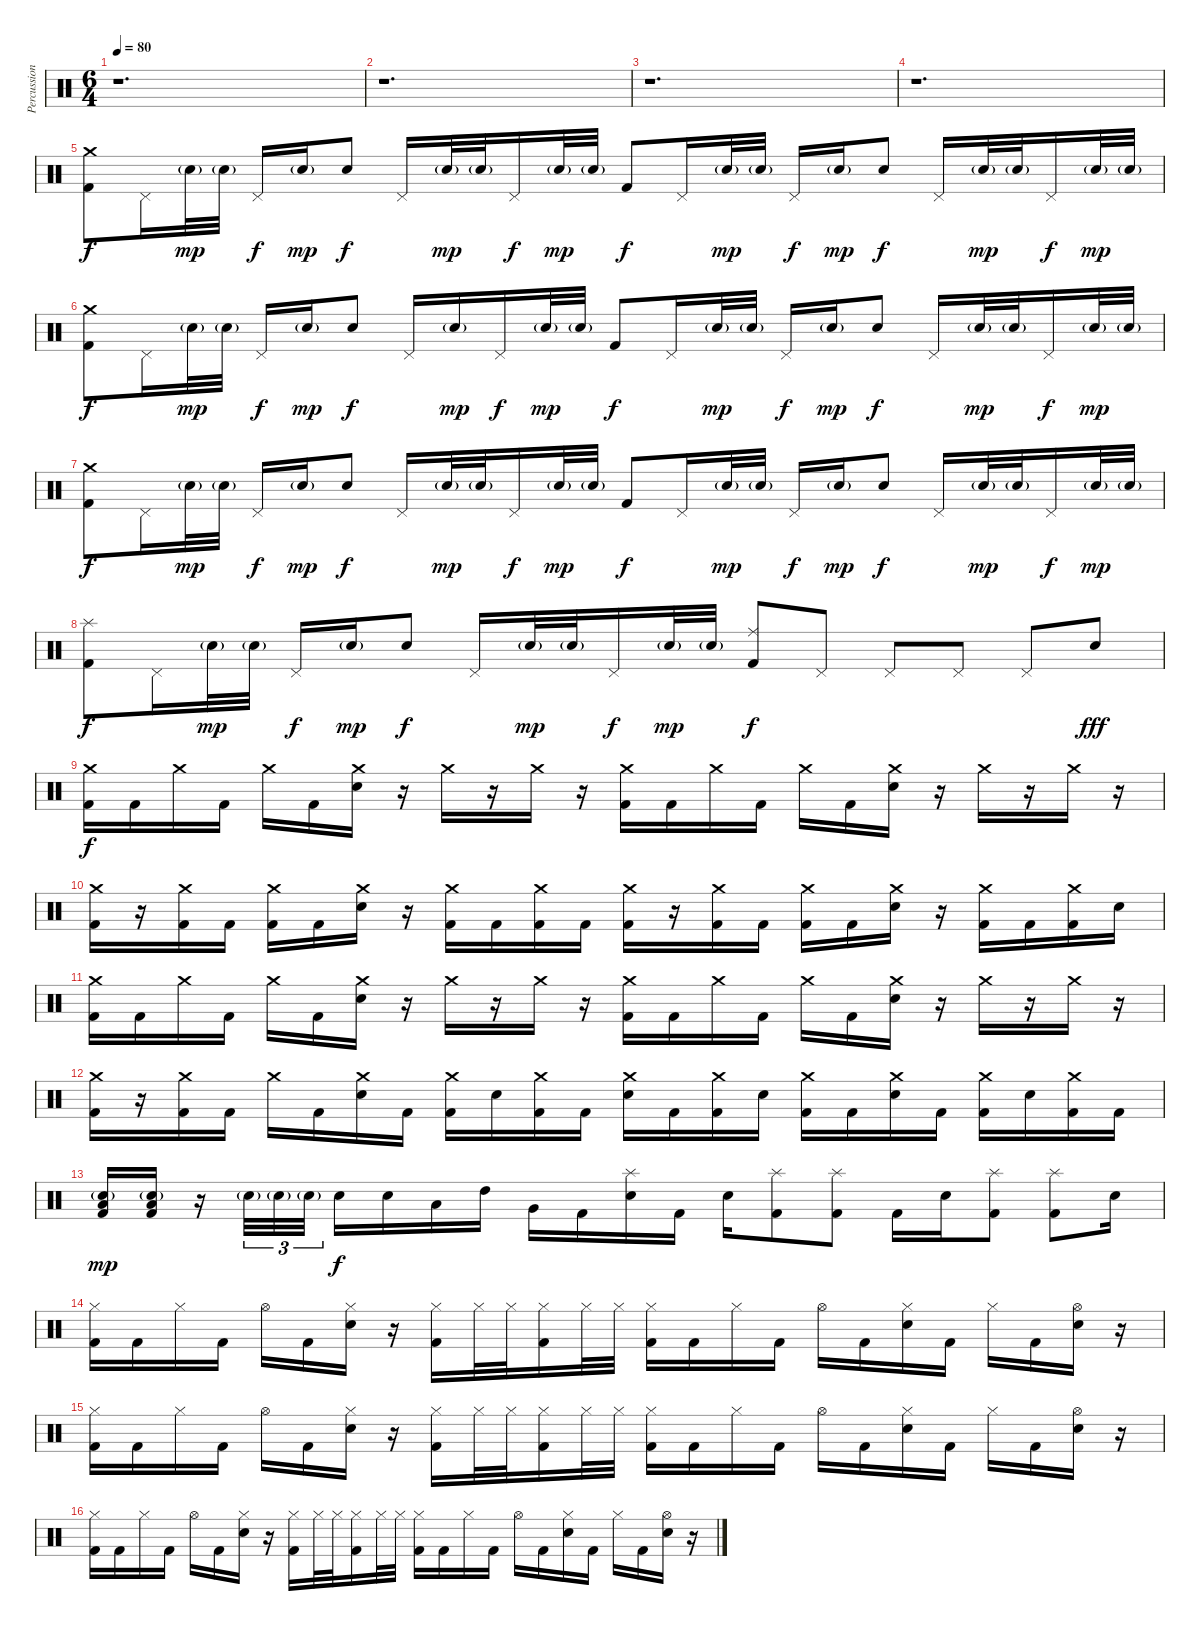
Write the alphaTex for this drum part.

\track ("Percussion" "Percussion") {instrument percussion}
\staff {score}
\articulation defaults
\ts (6 4)
\tempo 80
\clef neutral
\ks c
r.1{d dy f} |
r.1{d} |
r.1{d} |
r.1{d} |
("Crash medium (hit)" "Kick (hit) 2").8 "Pedal Hi-Hat (hit)".16 "Electric Snare (hit)"{g}.32{dy mp} "Electric Snare (hit)"{g}.32 "Pedal Hi-Hat (hit)".16{dy f} "Electric Snare (hit)"{g}.16{dy mp} "Electric Snare (hit)".8{dy f} "Pedal Hi-Hat (hit)".16 "Electric Snare (hit)"{g}.32{dy mp} "Electric Snare (hit)"{g}.32 "Pedal Hi-Hat (hit)".16{dy f} "Electric Snare (hit)"{g}.32{dy mp} "Electric Snare (hit)"{g}.32 "Kick (hit) 2".8{dy f} "Pedal Hi-Hat (hit)".16 "Electric Snare (hit)"{g}.32{dy mp} "Electric Snare (hit)"{g}.32 "Pedal Hi-Hat (hit)".16{dy f} "Electric Snare (hit)"{g}.16{dy mp} "Electric Snare (hit)".8{dy f} "Pedal Hi-Hat (hit)".16 "Electric Snare (hit)"{g}.32{dy mp} "Electric Snare (hit)"{g}.32 "Pedal Hi-Hat (hit)".16{dy f} "Electric Snare (hit)"{g}.32{dy mp} "Electric Snare (hit)"{g}.32 |
("Crash medium (hit)" "Kick (hit) 2").8{dy f} "Pedal Hi-Hat (hit)".16 "Electric Snare (hit)"{g}.32{dy mp} "Electric Snare (hit)"{g}.32 "Pedal Hi-Hat (hit)".16{dy f} "Electric Snare (hit)"{g}.16{dy mp} "Electric Snare (hit)".8{dy f} "Pedal Hi-Hat (hit)".16 "Electric Snare (hit)"{g}.16{dy mp} "Pedal Hi-Hat (hit)".16{dy f} "Electric Snare (hit)"{g}.32{dy mp} "Electric Snare (hit)"{g}.32 "Kick (hit) 2".8{dy f} "Pedal Hi-Hat (hit)".16 "Electric Snare (hit)"{g}.32{dy mp} "Electric Snare (hit)"{g}.32 "Pedal Hi-Hat (hit)".16{dy f} "Electric Snare (hit)"{g}.16{dy mp} "Electric Snare (hit)".8{dy f} "Pedal Hi-Hat (hit)".16 "Electric Snare (hit)"{g}.32{dy mp} "Electric Snare (hit)"{g}.32 "Pedal Hi-Hat (hit)".16{dy f} "Electric Snare (hit)"{g}.32{dy mp} "Electric Snare (hit)"{g}.32 |
("Crash medium (hit)" "Kick (hit) 2").8{dy f} "Pedal Hi-Hat (hit)".16 "Electric Snare (hit)"{g}.32{dy mp} "Electric Snare (hit)"{g}.32 "Pedal Hi-Hat (hit)".16{dy f} "Electric Snare (hit)"{g}.16{dy mp} "Electric Snare (hit)".8{dy f} "Pedal Hi-Hat (hit)".16 "Electric Snare (hit)"{g}.32{dy mp} "Electric Snare (hit)"{g}.32 "Pedal Hi-Hat (hit)".16{dy f} "Electric Snare (hit)"{g}.32{dy mp} "Electric Snare (hit)"{g}.32 "Kick (hit) 2".8{dy f} "Pedal Hi-Hat (hit)".16 "Electric Snare (hit)"{g}.32{dy mp} "Electric Snare (hit)"{g}.32 "Pedal Hi-Hat (hit)".16{dy f} "Electric Snare (hit)"{g}.16{dy mp} "Electric Snare (hit)".8{dy f} "Pedal Hi-Hat (hit)".16 "Electric Snare (hit)"{g}.32{dy mp} "Electric Snare (hit)"{g}.32 "Pedal Hi-Hat (hit)".16{dy f} "Electric Snare (hit)"{g}.32{dy mp} "Electric Snare (hit)"{g}.32 |
("Splash (hit)" "Kick (hit) 2").8{dy f} "Pedal Hi-Hat (hit)".16 "Electric Snare (hit)"{g}.32{dy mp} "Electric Snare (hit)"{g}.32 "Pedal Hi-Hat (hit)".16{dy f} "Electric Snare (hit)"{g}.16{dy mp} "Electric Snare (hit)".8{dy f} "Pedal Hi-Hat (hit)".16 "Electric Snare (hit)"{g}.32{dy mp} "Electric Snare (hit)"{g}.32 "Pedal Hi-Hat (hit)".16{dy f} "Electric Snare (hit)"{g}.32{dy mp} "Electric Snare (hit)"{g}.32 ("Ride (middle)" "Kick (hit) 2").8{dy f} "Pedal Hi-Hat (hit)".8 "Pedal Hi-Hat (hit)".8 "Pedal Hi-Hat (hit)".8 "Pedal Hi-Hat (hit)".8 "Electric Snare (hit)".8{dy fff} |
("Crash medium (hit)" "Kick (hit) 2").16{dy f} "Kick (hit) 2".16 "Crash medium (hit)".16 "Kick (hit) 2".16 "Crash medium (hit)".16 "Kick (hit) 2".16 ("Crash medium (hit)" "Electric Snare (hit)").16 r.16 "Crash medium (hit)".16 r.16 "Crash medium (hit)".16 r.16 ("Crash medium (hit)" "Kick (hit) 2").16 "Kick (hit) 2".16 "Crash medium (hit)".16 "Kick (hit) 2".16 "Crash medium (hit)".16 "Kick (hit) 2".16 ("Crash medium (hit)" "Electric Snare (hit)").16 r.16 "Crash medium (hit)".16 r.16 "Crash medium (hit)".16 r.16 |
("Crash medium (hit)" "Kick (hit) 2").16 r.16 ("Crash medium (hit)" "Kick (hit) 2").16 "Kick (hit) 2".16 ("Crash medium (hit)" "Kick (hit) 2").16 "Kick (hit) 2".16 ("Crash medium (hit)" "Electric Snare (hit)").16 r.16 ("Crash medium (hit)" "Kick (hit) 2").16 "Kick (hit) 2".16 ("Crash medium (hit)" "Kick (hit) 2").16 "Kick (hit) 2".16 ("Crash medium (hit)" "Kick (hit) 2").16 r.16 ("Crash medium (hit)" "Kick (hit) 2").16 "Kick (hit) 2".16 ("Crash medium (hit)" "Kick (hit) 2").16 "Kick (hit) 2".16 ("Crash medium (hit)" "Electric Snare (hit)").16 r.16 ("Crash medium (hit)" "Kick (hit) 2").16 "Kick (hit) 2".16 ("Crash medium (hit)" "Kick (hit) 2").16 "Electric Snare (hit)".16 |
("Crash medium (hit)" "Kick (hit) 2").16 "Kick (hit) 2".16 "Crash medium (hit)".16 "Kick (hit) 2".16 "Crash medium (hit)".16 "Kick (hit) 2".16 ("Crash medium (hit)" "Electric Snare (hit)").16 r.16 "Crash medium (hit)".16 r.16 "Crash medium (hit)".16 r.16 ("Crash medium (hit)" "Kick (hit) 2").16 "Kick (hit) 2".16 "Crash medium (hit)".16 "Kick (hit) 2".16 "Crash medium (hit)".16 "Kick (hit) 2".16 ("Crash medium (hit)" "Electric Snare (hit)").16 r.16 "Crash medium (hit)".16 r.16 "Crash medium (hit)".16 r.16 |
("Crash medium (hit)" "Kick (hit) 2").16 r.16 ("Crash medium (hit)" "Kick (hit) 2").16 "Kick (hit) 2".16 "Crash medium (hit)".16 "Kick (hit) 2".16 ("Crash medium (hit)" "Electric Snare (hit)").16 "Kick (hit) 2".16 ("Crash medium (hit)" "Kick (hit) 2").16 "Electric Snare (hit)".16 ("Crash medium (hit)" "Kick (hit) 2").16 "Kick (hit) 2".16 ("Crash medium (hit)" "Electric Snare (hit)").16 "Kick (hit) 2".16 ("Crash medium (hit)" "Kick (hit) 2").16 "Electric Snare (hit)".16 ("Crash medium (hit)" "Kick (hit) 2").16 "Kick (hit) 2".16 ("Crash medium (hit)" "Electric Snare (hit)").16 "Kick (hit) 2".16 ("Crash medium (hit)" "Kick (hit) 2").16 "Electric Snare (hit)".16 ("Crash medium (hit)" "Kick (hit) 2").16 "Kick (hit) 2".16 |
("Electric Snare (hit)"{g} "Low Floor Tom (hit)" "Kick (hit) 2").16{dy mp} ("Electric Snare (hit)"{g} "Low Floor Tom (hit)" "Kick (hit) 2").16 r.16 "Electric Snare (hit)"{g}.32{tu (3 2)} "Electric Snare (hit)"{g}.32{tu (3 2)} "Electric Snare (hit)"{g}.32{tu (3 2)} "Electric Snare (hit)".16{dy f} "Electric Snare (hit)".16 "Low Tom (hit)".16 "High Tom (hit)".16 "Very Low Tom (hit)".16 "Kick (hit) 2".16 ("Splash (hit)" "Electric Snare (hit)").16 "Kick (hit) 2".16 "Electric Snare (hit)".16 ("Splash (hit)" "Kick (hit) 2").8 ("Splash (hit)" "Kick (hit) 2").8 "Kick (hit) 2".16 "Electric Snare (hit)".16 ("Splash (hit)" "Kick (hit) 2").8 ("Splash (hit)" "Kick (hit) 2").8 "Electric Snare (hit)".16 |
("Hi-Hat (closed)" "Kick (hit) 2").16 "Kick (hit) 2".16 "Hi-Hat (closed)".16 "Kick (hit) 2".16 "Hi-Hat (open)".16 "Kick (hit) 2".16 ("Hi-Hat (closed)" "Electric Snare (hit)").16 r.16 ("Hi-Hat (closed)" "Kick (hit) 2").16 "Hi-Hat (closed)".32 "Hi-Hat (closed)".32 ("Hi-Hat (closed)" "Kick (hit) 2").16 "Hi-Hat (closed)".32 "Hi-Hat (closed)".32 ("Hi-Hat (closed)" "Kick (hit) 2").16 "Kick (hit) 2".16 "Hi-Hat (closed)".16 "Kick (hit) 2".16 "Hi-Hat (open)".16 "Kick (hit) 2".16 ("Hi-Hat (closed)" "Electric Snare (hit)").16 "Kick (hit) 2".16 "Hi-Hat (closed)".16 "Kick (hit) 2".16 ("Hi-Hat (open)" "Electric Snare (hit)").16 r.16 |
("Hi-Hat (closed)" "Kick (hit) 2").16 "Kick (hit) 2".16 "Hi-Hat (closed)".16 "Kick (hit) 2".16 "Hi-Hat (open)".16 "Kick (hit) 2".16 ("Hi-Hat (closed)" "Electric Snare (hit)").16 r.16 ("Hi-Hat (closed)" "Kick (hit) 2").16 "Hi-Hat (closed)".32 "Hi-Hat (closed)".32 ("Hi-Hat (closed)" "Kick (hit) 2").16 "Hi-Hat (closed)".32 "Hi-Hat (closed)".32 ("Hi-Hat (closed)" "Kick (hit) 2").16 "Kick (hit) 2".16 "Hi-Hat (closed)".16 "Kick (hit) 2".16 "Hi-Hat (open)".16 "Kick (hit) 2".16 ("Hi-Hat (closed)" "Electric Snare (hit)").16 "Kick (hit) 2".16 "Hi-Hat (closed)".16 "Kick (hit) 2".16 ("Hi-Hat (open)" "Electric Snare (hit)").16 r.16 |
("Hi-Hat (closed)" "Kick (hit) 2").16 "Kick (hit) 2".16 "Hi-Hat (closed)".16 "Kick (hit) 2".16 "Hi-Hat (open)".16 "Kick (hit) 2".16 ("Hi-Hat (closed)" "Electric Snare (hit)").16 r.16 ("Hi-Hat (closed)" "Kick (hit) 2").16 "Hi-Hat (closed)".32 "Hi-Hat (closed)".32 ("Hi-Hat (closed)" "Kick (hit) 2").16 "Hi-Hat (closed)".32 "Hi-Hat (closed)".32 ("Hi-Hat (closed)" "Kick (hit) 2").16 "Kick (hit) 2".16 "Hi-Hat (closed)".16 "Kick (hit) 2".16 "Hi-Hat (open)".16 "Kick (hit) 2".16 ("Hi-Hat (closed)" "Electric Snare (hit)").16 "Kick (hit) 2".16 "Hi-Hat (closed)".16 "Kick (hit) 2".16 ("Hi-Hat (open)" "Electric Snare (hit)").16 r.16
